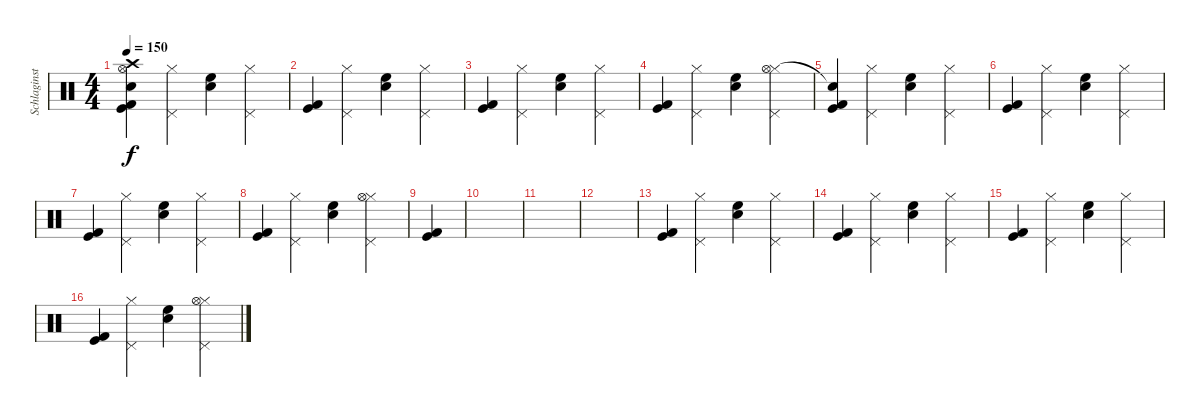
\track ("Schlaginstrumente - Auswahl" "Schlaginst") {instrument percussion}
\staff {score}
\articulation defaults
\ts (4 4)
\tempo 150
\clef neutral
\ks c
("Kick (hit) 2" "Kick (hit)" "Snare (hit)"{t} "Hi-Hat (open)" "Crash high (hit)").4{dy f} ("Pedal Hi-Hat (hit)" "Hi-Hat (closed)").4 ("High Floor Tom (hit)" "Snare (hit) 2").4 ("Pedal Hi-Hat (hit)" "Hi-Hat (closed)").4 |
("Kick (hit) 2" "Kick (hit)").4 ("Pedal Hi-Hat (hit)" "Hi-Hat (closed)").4 ("High Floor Tom (hit)" "Snare (hit) 2").4 ("Pedal Hi-Hat (hit)" "Hi-Hat (closed)").4 |
("Kick (hit) 2" "Kick (hit)").4 ("Pedal Hi-Hat (hit)" "Hi-Hat (closed)").4 ("High Floor Tom (hit)" "Snare (hit) 2").4 ("Pedal Hi-Hat (hit)" "Hi-Hat (closed)").4 |
("Kick (hit) 2" "Kick (hit)").4 ("Pedal Hi-Hat (hit)" "Hi-Hat (closed)").4 ("High Floor Tom (hit)" "Snare (hit) 2").4 ("Pedal Hi-Hat (hit)" "Hi-Hat (closed)" "Hi-Hat (open)").4 |
("Kick (hit) 2" "Kick (hit)" "Snare (hit)"{t}).4 ("Pedal Hi-Hat (hit)" "Hi-Hat (closed)").4 ("High Floor Tom (hit)" "Snare (hit) 2").4 ("Pedal Hi-Hat (hit)" "Hi-Hat (closed)").4 |
("Kick (hit) 2" "Kick (hit)").4 ("Pedal Hi-Hat (hit)" "Hi-Hat (closed)").4 ("High Floor Tom (hit)" "Snare (hit) 2").4 ("Pedal Hi-Hat (hit)" "Hi-Hat (closed)").4 |
("Kick (hit) 2" "Kick (hit)").4 ("Pedal Hi-Hat (hit)" "Hi-Hat (closed)").4 ("High Floor Tom (hit)" "Snare (hit) 2").4 ("Pedal Hi-Hat (hit)" "Hi-Hat (closed)").4 |
("Kick (hit) 2" "Kick (hit)").4 ("Pedal Hi-Hat (hit)" "Hi-Hat (closed)").4 ("High Floor Tom (hit)" "Snare (hit) 2").4 ("Pedal Hi-Hat (hit)" "Hi-Hat (closed)" "Hi-Hat (open)").4 |
("Kick (hit)" "Kick (hit) 2").4 |
|
|
|
("Kick (hit) 2" "Kick (hit)").4 ("Pedal Hi-Hat (hit)" "Hi-Hat (closed)").4 ("High Floor Tom (hit)" "Snare (hit) 2").4 ("Pedal Hi-Hat (hit)" "Hi-Hat (closed)").4 |
("Kick (hit) 2" "Kick (hit)").4 ("Pedal Hi-Hat (hit)" "Hi-Hat (closed)").4 ("High Floor Tom (hit)" "Snare (hit) 2").4 ("Pedal Hi-Hat (hit)" "Hi-Hat (closed)").4 |
("Kick (hit) 2" "Kick (hit)").4 ("Pedal Hi-Hat (hit)" "Hi-Hat (closed)").4 ("High Floor Tom (hit)" "Snare (hit) 2").4 ("Pedal Hi-Hat (hit)" "Hi-Hat (closed)").4 |
("Kick (hit) 2" "Kick (hit)").4 ("Pedal Hi-Hat (hit)" "Hi-Hat (closed)").4 ("High Floor Tom (hit)" "Snare (hit) 2").4 ("Pedal Hi-Hat (hit)" "Hi-Hat (closed)" "Hi-Hat (open)").4
